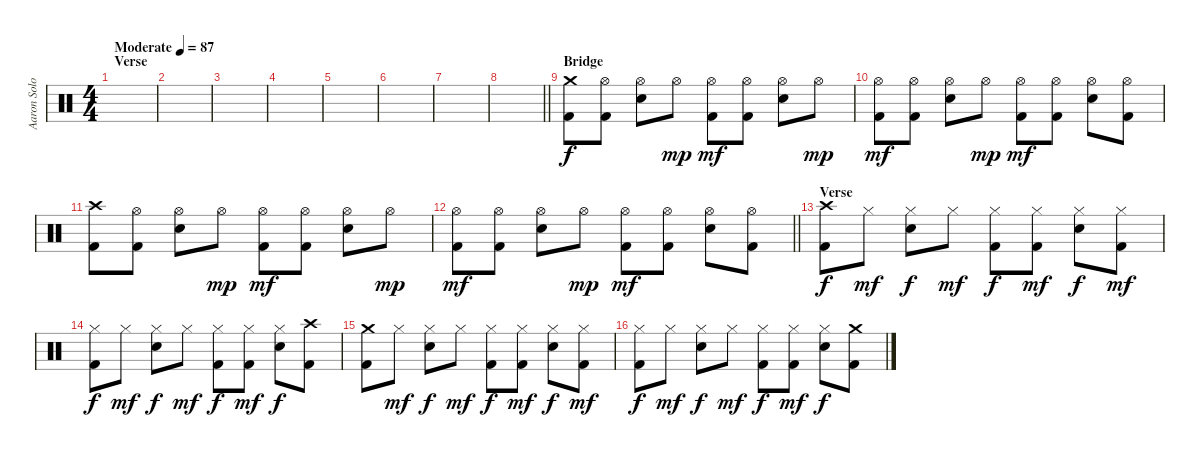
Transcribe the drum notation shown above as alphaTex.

\track ("Aaron Solowoniuk" "Aaron Solo") {instrument percussion}
\staff {score}
\articulation defaults
\ts (4 4)
\section ("" "Verse")
\tempo (87 "Moderate")
\clef neutral
\ks c
|
|
|
|
|
|
|
\barLineRight lightlight
|
\section ("" "Bridge")
("Crash medium (hit)" "Kick (hit) 2").8 ("Hi-Hat (open)" "Kick (hit) 2").8 ("Hi-Hat (open)" "Snare (hit) 2").8 "Hi-Hat (open)".8{dy mp} ("Hi-Hat (open)" "Kick (hit) 2").8{dy mf} ("Hi-Hat (open)" "Kick (hit) 2").8 ("Hi-Hat (open)" "Snare (hit) 2").8 "Hi-Hat (open)".8{dy mp} |
("Hi-Hat (open)" "Kick (hit) 2").8{dy mf} ("Hi-Hat (open)" "Kick (hit) 2").8 ("Hi-Hat (open)" "Snare (hit) 2").8 "Hi-Hat (open)".8{dy mp} ("Hi-Hat (open)" "Kick (hit) 2").8{dy mf} ("Hi-Hat (open)" "Kick (hit) 2").8 ("Hi-Hat (open)" "Snare (hit) 2").8 ("Hi-Hat (open)" "Kick (hit) 2").8 |
("Crash high (hit)" "Kick (hit) 2").8 ("Hi-Hat (open)" "Kick (hit) 2").8 ("Hi-Hat (open)" "Snare (hit) 2").8 "Hi-Hat (open)".8{dy mp} ("Hi-Hat (open)" "Kick (hit) 2").8{dy mf} ("Hi-Hat (open)" "Kick (hit) 2").8 ("Hi-Hat (open)" "Snare (hit) 2").8 "Hi-Hat (open)".8{dy mp} |
\barLineRight lightlight
("Hi-Hat (open)" "Kick (hit) 2").8{dy mf} ("Hi-Hat (open)" "Kick (hit) 2").8 ("Hi-Hat (open)" "Snare (hit) 2").8 "Hi-Hat (open)".8{dy mp} ("Hi-Hat (open)" "Kick (hit) 2").8{dy mf} ("Hi-Hat (open)" "Kick (hit) 2").8 ("Hi-Hat (open)" "Snare (hit) 2").8 ("Hi-Hat (open)" "Kick (hit) 2").8 |
\section ("" "Verse")
("Crash high (hit)" "Kick (hit) 2").8{dy f} "Hi-Hat (closed)".8{dy mf} ("Hi-Hat (closed)" "Snare (hit) 2").8{dy f} "Hi-Hat (closed)".8{dy mf} ("Hi-Hat (closed)" "Kick (hit) 2").8{dy f} ("Hi-Hat (closed)" "Kick (hit) 2").8{dy mf} ("Hi-Hat (closed)" "Snare (hit) 2").8{dy f} ("Hi-Hat (closed)" "Kick (hit) 2").8{dy mf} |
("Hi-Hat (closed)" "Kick (hit) 2").8{dy f} "Hi-Hat (closed)".8{dy mf} ("Hi-Hat (closed)" "Snare (hit) 2").8{dy f} "Hi-Hat (closed)".8{dy mf} ("Hi-Hat (closed)" "Kick (hit) 2").8{dy f} ("Hi-Hat (closed)" "Kick (hit) 2").8{dy mf} ("Hi-Hat (closed)" "Snare (hit) 2").8{dy f} ("Crash high (hit)" "Kick (hit) 2").8 |
("Crash medium (hit)" "Kick (hit) 2").8 "Hi-Hat (closed)".8{dy mf} ("Hi-Hat (closed)" "Snare (hit) 2").8{dy f} "Hi-Hat (closed)".8{dy mf} ("Hi-Hat (closed)" "Kick (hit) 2").8{dy f} ("Hi-Hat (closed)" "Kick (hit) 2").8{dy mf} ("Hi-Hat (closed)" "Snare (hit) 2").8{dy f} ("Hi-Hat (closed)" "Kick (hit) 2").8{dy mf} |
("Hi-Hat (closed)" "Kick (hit) 2").8{dy f} "Hi-Hat (closed)".8{dy mf} ("Hi-Hat (closed)" "Snare (hit) 2").8{dy f} "Hi-Hat (closed)".8{dy mf} ("Hi-Hat (closed)" "Kick (hit) 2").8{dy f} ("Hi-Hat (closed)" "Kick (hit) 2").8{dy mf} ("Hi-Hat (closed)" "Snare (hit) 2").8{dy f} ("Crash medium (hit)" "Kick (hit) 2").8
